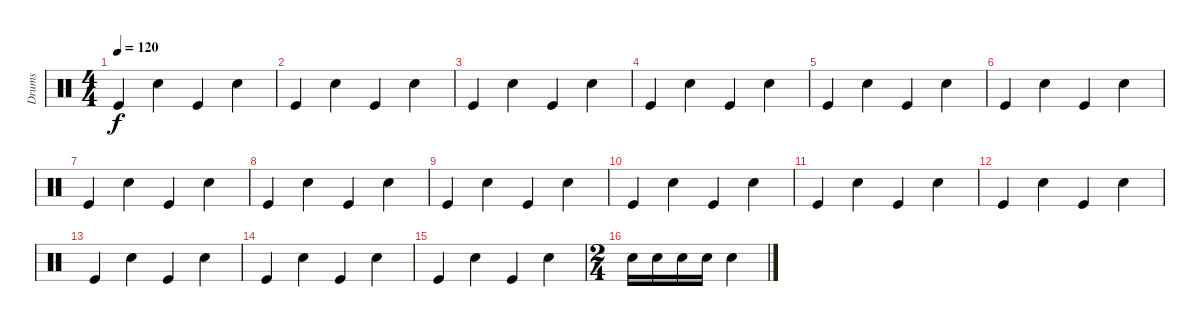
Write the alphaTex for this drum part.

\track ("Drums" "Drums") {instrument percussion}
\staff {score}
\articulation defaults
\ts (4 4)
\tempo 120
\clef neutral
\ks c "Kick (hit)".4{dy f} "Snare (hit) 2".4 "Kick (hit)".4 "Snare (hit) 2".4
|
"Kick (hit)".4 "Snare (hit) 2".4 "Kick (hit)".4 "Snare (hit) 2".4 |
"Kick (hit)".4 "Snare (hit) 2".4 "Kick (hit)".4 "Snare (hit) 2".4 |
"Kick (hit)".4 "Snare (hit) 2".4 "Kick (hit)".4 "Snare (hit) 2".4 |
"Kick (hit)".4 "Snare (hit) 2".4 "Kick (hit)".4 "Snare (hit) 2".4 |
"Kick (hit)".4 "Snare (hit) 2".4 "Kick (hit)".4 "Snare (hit) 2".4 |
"Kick (hit)".4 "Snare (hit) 2".4 "Kick (hit)".4 "Snare (hit) 2".4 |
"Kick (hit)".4 "Snare (hit) 2".4 "Kick (hit)".4 "Snare (hit) 2".4 |
"Kick (hit)".4 "Snare (hit) 2".4 "Kick (hit)".4 "Snare (hit) 2".4 |
"Kick (hit)".4 "Snare (hit) 2".4 "Kick (hit)".4 "Snare (hit) 2".4 |
"Kick (hit)".4 "Snare (hit) 2".4 "Kick (hit)".4 "Snare (hit) 2".4 |
"Kick (hit)".4 "Snare (hit) 2".4 "Kick (hit)".4 "Snare (hit) 2".4 |
"Kick (hit)".4 "Snare (hit) 2".4 "Kick (hit)".4 "Snare (hit) 2".4 |
"Kick (hit)".4 "Snare (hit) 2".4 "Kick (hit)".4 "Snare (hit) 2".4 |
"Kick (hit)".4 "Snare (hit) 2".4 "Kick (hit)".4 "Snare (hit) 2".4 |
\ts (2 4)
"Electric Snare (hit)".16 "Electric Snare (hit)".16 "Electric Snare (hit)".16 "Electric Snare (hit)".16 "Electric Snare (hit)".4
